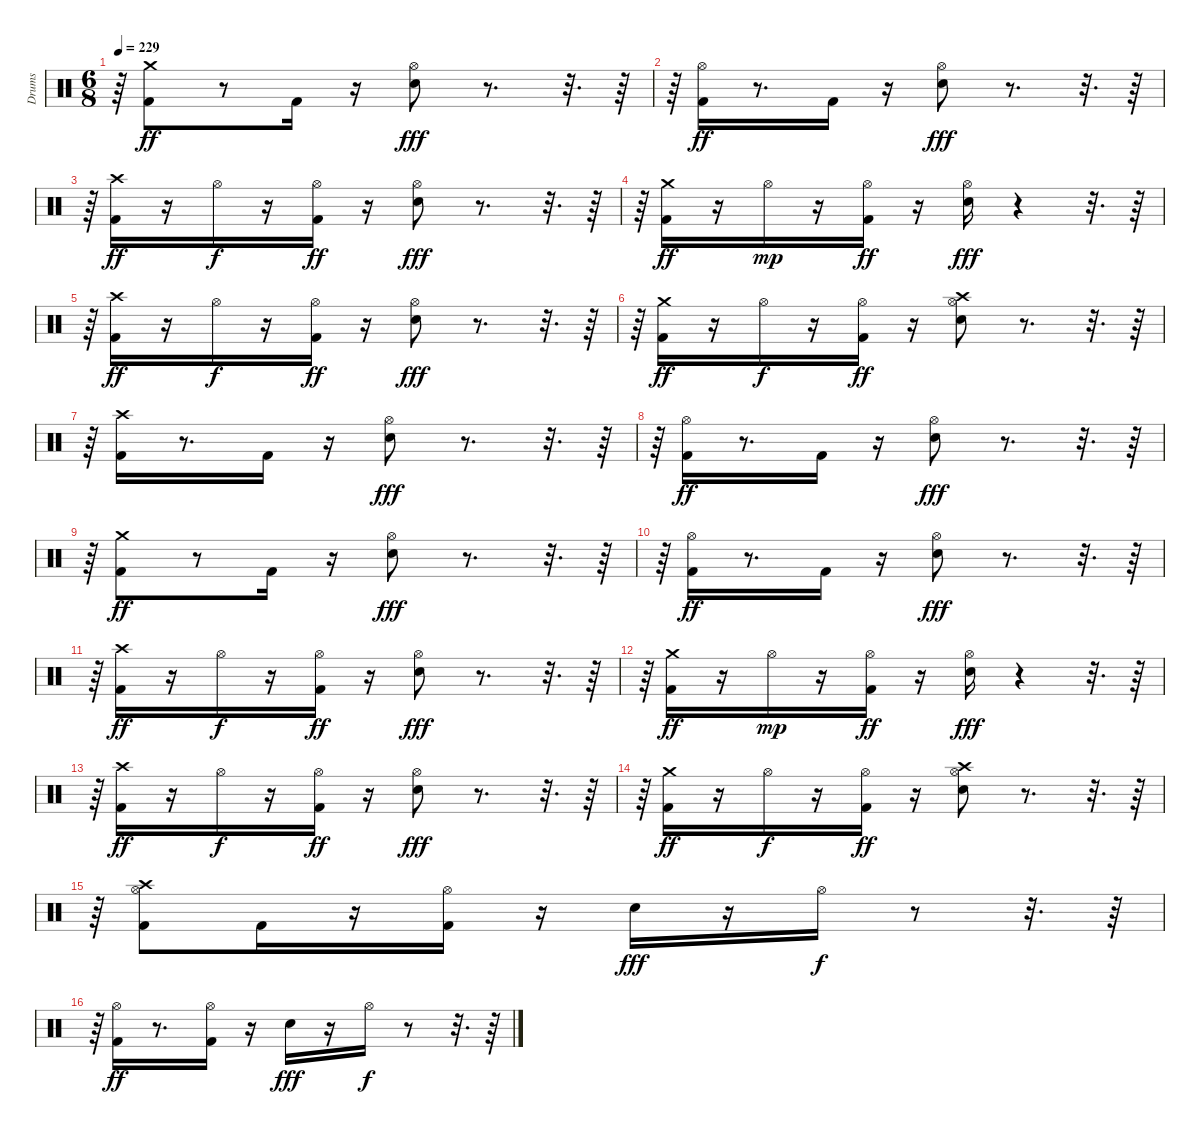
\track ("Drums" "Drums") {instrument percussion}
\staff {score}
\articulation defaults
\ts (6 8)
\tempo 229
\clef neutral
\ks c
r.64{dy fff} ("Kick (hit) 2" "Crash medium (hit)").8{dy ff} r.8 "Kick (hit) 2".16 r.16 ("Snare (hit) 2" "Hi-Hat (open)").8{dy fff} r.8{d} r.32{d} r.64 |
r.64 ("Kick (hit) 2" "Hi-Hat (open)").16{dy ff} r.8{d} "Kick (hit) 2".16 r.16 ("Snare (hit) 2" "Hi-Hat (open)").8{dy fff} r.8{d} r.32{d} r.64 |
r.64 ("Kick (hit) 2" "Crash high (hit)").16{dy ff} r.16 "Hi-Hat (open)".16{dy f} r.16 ("Kick (hit) 2" "Hi-Hat (open)").16{dy ff} r.16 ("Snare (hit) 2" "Hi-Hat (open)").8{dy fff} r.8{d} r.32{d} r.64 |
r.64 ("Kick (hit) 2" "Crash medium (hit)").16{dy ff} r.16 "Hi-Hat (open)".16{dy mp} r.16 ("Kick (hit) 2" "Hi-Hat (open)").16{dy ff} r.16 ("Snare (hit) 2" "Hi-Hat (open)").16{dy fff} r.4 r.32{d} r.64 |
r.64 ("Kick (hit) 2" "Crash high (hit)").16{dy ff} r.16 "Hi-Hat (open)".16{dy f} r.16 ("Kick (hit) 2" "Hi-Hat (open)").16{dy ff} r.16 ("Snare (hit) 2" "Hi-Hat (open)").8{dy fff} r.8{d} r.32{d} r.64 |
r.64 ("Kick (hit) 2" "Crash medium (hit)").16{dy ff} r.16 "Hi-Hat (open)".16{dy f} r.16 ("Kick (hit) 2" "Hi-Hat (open)").16{dy ff} r.16 ("Snare (hit) 2" "Hi-Hat (open)" "Crash high (hit)").8 r.8{d} r.32{d} r.64 |
r.64 ("Kick (hit) 2" "Crash high (hit)").16 r.8{d} "Kick (hit) 2".16 r.16 ("Snare (hit) 2" "Hi-Hat (open)").8{dy fff} r.8{d} r.32{d} r.64 |
r.64 ("Kick (hit) 2" "Hi-Hat (open)").16{dy ff} r.8{d} "Kick (hit) 2".16 r.16 ("Snare (hit) 2" "Hi-Hat (open)").8{dy fff} r.8{d} r.32{d} r.64 |
r.64 ("Kick (hit) 2" "Crash medium (hit)").8{dy ff} r.8 "Kick (hit) 2".16 r.16 ("Snare (hit) 2" "Hi-Hat (open)").8{dy fff} r.8{d} r.32{d} r.64 |
r.64 ("Kick (hit) 2" "Hi-Hat (open)").16{dy ff} r.8{d} "Kick (hit) 2".16 r.16 ("Snare (hit) 2" "Hi-Hat (open)").8{dy fff} r.8{d} r.32{d} r.64 |
r.64 ("Kick (hit) 2" "Crash high (hit)").16{dy ff} r.16 "Hi-Hat (open)".16{dy f} r.16 ("Kick (hit) 2" "Hi-Hat (open)").16{dy ff} r.16 ("Snare (hit) 2" "Hi-Hat (open)").8{dy fff} r.8{d} r.32{d} r.64 |
r.64 ("Kick (hit) 2" "Crash medium (hit)").16{dy ff} r.16 "Hi-Hat (open)".16{dy mp} r.16 ("Kick (hit) 2" "Hi-Hat (open)").16{dy ff} r.16 ("Snare (hit) 2" "Hi-Hat (open)").16{dy fff} r.4 r.32{d} r.64 |
r.64 ("Kick (hit) 2" "Crash high (hit)").16{dy ff} r.16 "Hi-Hat (open)".16{dy f} r.16 ("Kick (hit) 2" "Hi-Hat (open)").16{dy ff} r.16 ("Snare (hit) 2" "Hi-Hat (open)").8{dy fff} r.8{d} r.32{d} r.64 |
r.64 ("Kick (hit) 2" "Crash medium (hit)").16{dy ff} r.16 "Hi-Hat (open)".16{dy f} r.16 ("Kick (hit) 2" "Hi-Hat (open)").16{dy ff} r.16 ("Snare (hit) 2" "Hi-Hat (open)" "Crash high (hit)").8 r.8{d} r.32{d} r.64 |
r.64 ("Kick (hit) 2" "Hi-Hat (open)" "Crash high (hit)").8 "Kick (hit) 2".16 r.16 ("Kick (hit) 2" "Hi-Hat (open)").16 r.16 "Snare (hit) 2".16{dy fff} r.16 "Hi-Hat (open)".16{dy f} r.8 r.32{d} r.64 |
r.64 ("Kick (hit) 2" "Hi-Hat (open)").16{dy ff} r.8{d} ("Kick (hit) 2" "Hi-Hat (open)").16 r.16 "Snare (hit) 2".16{dy fff} r.16 "Hi-Hat (open)".16{dy f} r.8 r.32{d} r.64
